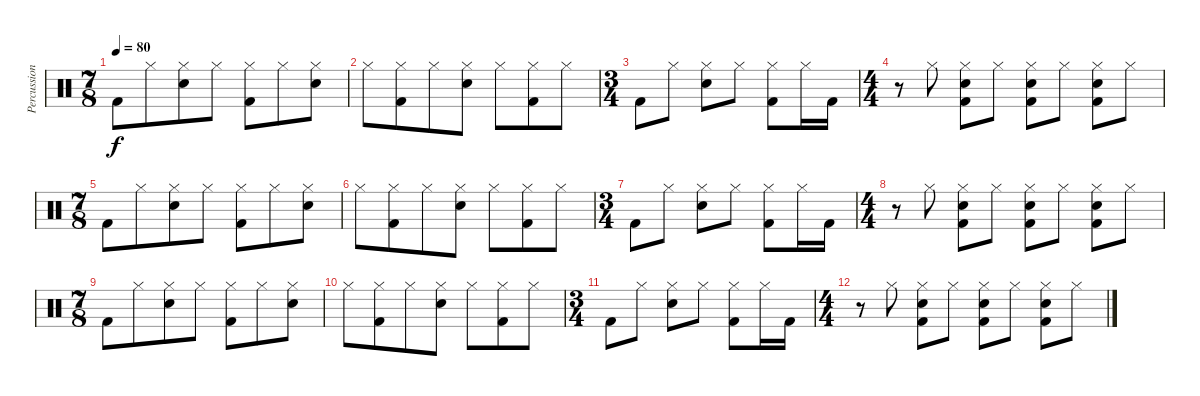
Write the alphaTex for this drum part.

\track ("Percussion" "Percussion") {instrument percussion}
\staff {score}
\articulation defaults
\ts (7 8)
\tempo 80
\clef neutral
\ks c "Kick (hit) 2".8{dy f} "Hi-Hat (closed)".8
("Hi-Hat (closed)" "Snare (hit) 2").8 "Hi-Hat (closed)".8 ("Hi-Hat (closed)" "Kick (hit) 2").8 "Hi-Hat (closed)".8 ("Hi-Hat (closed)" "Snare (hit) 2").8 |
"Hi-Hat (closed)".8 ("Hi-Hat (closed)" "Kick (hit) 2").8 "Hi-Hat (closed)".8 ("Hi-Hat (closed)" "Snare (hit) 2").8 "Hi-Hat (closed)".8 ("Hi-Hat (closed)" "Kick (hit) 2").8 "Hi-Hat (closed)".8 |
\ts (3 4)
"Kick (hit) 2".8 "Hi-Hat (closed)".8 ("Hi-Hat (closed)" "Snare (hit) 2").8 "Hi-Hat (closed)".8 ("Hi-Hat (closed)" "Kick (hit) 2").8 "Hi-Hat (closed)".16 "Kick (hit) 2".16 |
\ts (4 4)
r.8 "Hi-Hat (closed)".8 ("Hi-Hat (closed)" "Snare (hit) 2" "Kick (hit) 2").8 "Hi-Hat (closed)".8 ("Hi-Hat (closed)" "Snare (hit) 2" "Kick (hit) 2").8 "Hi-Hat (closed)".8 ("Hi-Hat (closed)" "Snare (hit) 2" "Kick (hit) 2").8 "Hi-Hat (closed)".8 |
\ts (7 8)
"Kick (hit) 2".8 "Hi-Hat (closed)".8 ("Hi-Hat (closed)" "Snare (hit) 2").8 "Hi-Hat (closed)".8 ("Hi-Hat (closed)" "Kick (hit) 2").8 "Hi-Hat (closed)".8 ("Hi-Hat (closed)" "Snare (hit) 2").8 |
"Hi-Hat (closed)".8 ("Hi-Hat (closed)" "Kick (hit) 2").8 "Hi-Hat (closed)".8 ("Hi-Hat (closed)" "Snare (hit) 2").8 "Hi-Hat (closed)".8 ("Hi-Hat (closed)" "Kick (hit) 2").8 "Hi-Hat (closed)".8 |
\ts (3 4)
"Kick (hit) 2".8 "Hi-Hat (closed)".8 ("Hi-Hat (closed)" "Snare (hit) 2").8 "Hi-Hat (closed)".8 ("Hi-Hat (closed)" "Kick (hit) 2").8 "Hi-Hat (closed)".16 "Kick (hit) 2".16 |
\ts (4 4)
r.8 "Hi-Hat (closed)".8 ("Hi-Hat (closed)" "Snare (hit) 2" "Kick (hit) 2").8 "Hi-Hat (closed)".8 ("Hi-Hat (closed)" "Snare (hit) 2" "Kick (hit) 2").8 "Hi-Hat (closed)".8 ("Hi-Hat (closed)" "Snare (hit) 2" "Kick (hit) 2").8 "Hi-Hat (closed)".8 |
\ts (7 8)
"Kick (hit) 2".8 "Hi-Hat (closed)".8 ("Hi-Hat (closed)" "Snare (hit) 2").8 "Hi-Hat (closed)".8 ("Hi-Hat (closed)" "Kick (hit) 2").8 "Hi-Hat (closed)".8 ("Hi-Hat (closed)" "Snare (hit) 2").8 |
"Hi-Hat (closed)".8 ("Hi-Hat (closed)" "Kick (hit) 2").8 "Hi-Hat (closed)".8 ("Hi-Hat (closed)" "Snare (hit) 2").8 "Hi-Hat (closed)".8 ("Hi-Hat (closed)" "Kick (hit) 2").8 "Hi-Hat (closed)".8 |
\ts (3 4)
"Kick (hit) 2".8 "Hi-Hat (closed)".8 ("Hi-Hat (closed)" "Snare (hit) 2").8 "Hi-Hat (closed)".8 ("Hi-Hat (closed)" "Kick (hit) 2").8 "Hi-Hat (closed)".16 "Kick (hit) 2".16 |
\ts (4 4)
r.8 "Hi-Hat (closed)".8 ("Hi-Hat (closed)" "Snare (hit) 2" "Kick (hit) 2").8 "Hi-Hat (closed)".8 ("Hi-Hat (closed)" "Snare (hit) 2" "Kick (hit) 2").8 "Hi-Hat (closed)".8 ("Hi-Hat (closed)" "Snare (hit) 2" "Kick (hit) 2").8 "Hi-Hat (closed)".8
